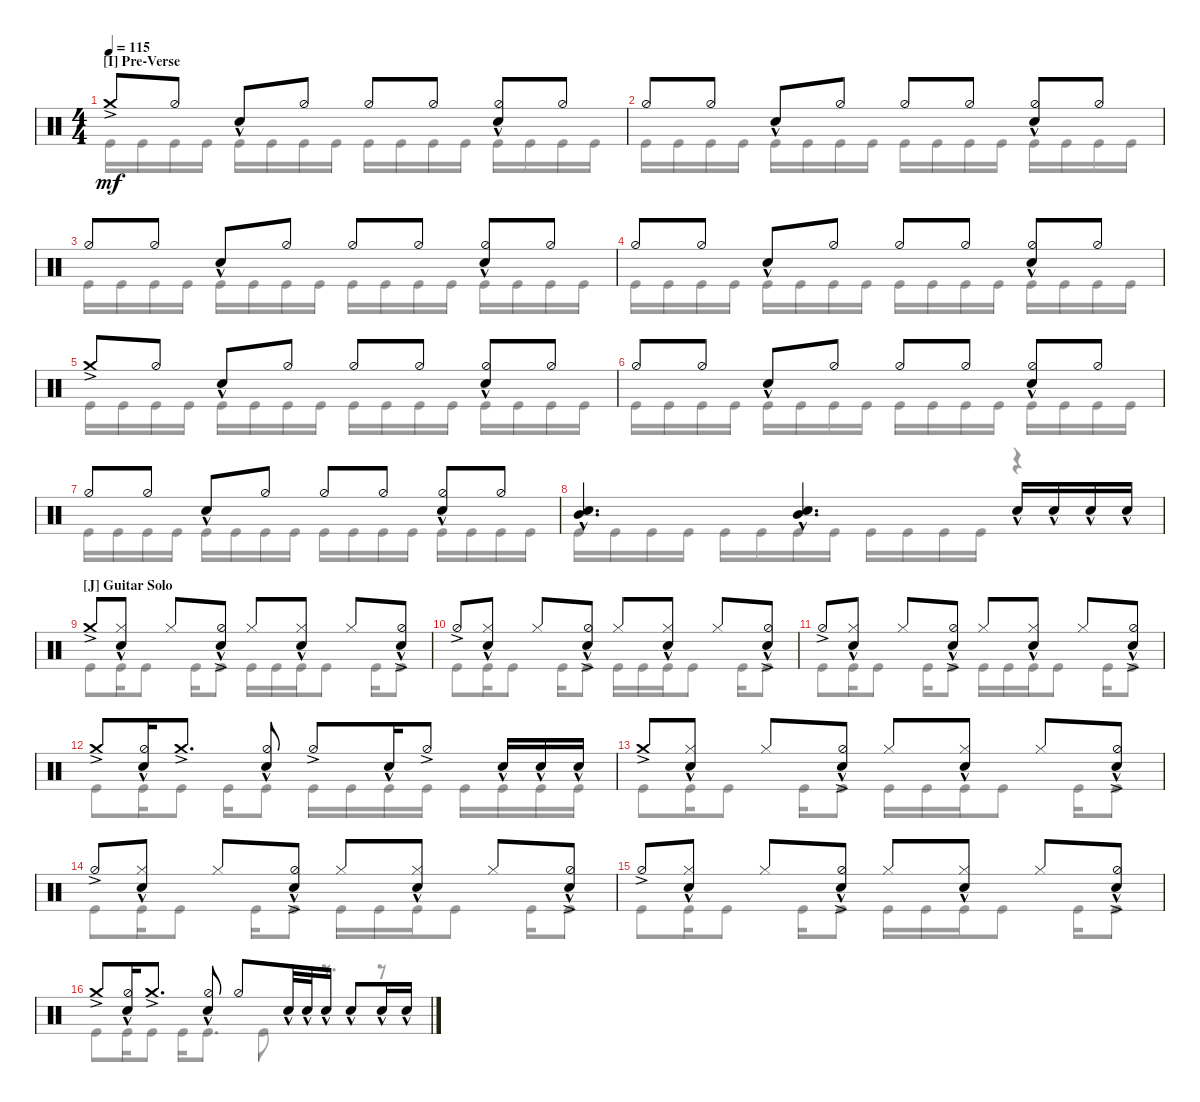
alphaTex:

\defaultSystemsLayout 4
\bracketExtendMode groupsimilarinstruments
\singleTrackTrackNamePolicy hidden
\multiTrackTrackNamePolicy hidden
\firstSystemTrackNameOrientation horizontal
\otherSystemsTrackNameOrientation horizontal
\track ("Maksim Udalov" "Drums") {instrument percussion}
\staff {score}
\articulation defaults
\voice
\ts (4 4)
\section ("I" "Pre-Verse")
\tempo 115
\clef neutral
\scale
1.02648
\ks c "Crash medium (hit)"{ac}.8{dy mf} "Hi-Hat (half)".8 "Snare (hit) 2"{hac}.8 "Hi-Hat (half)".8 "Hi-Hat (half)".8 "Hi-Hat (half)".8
("Hi-Hat (half)" "Snare (hit) 2"{hac}).8 "Hi-Hat (half)".8 |
\scale
0.973518 "Hi-Hat (half)".8 "Hi-Hat (half)".8 "Snare (hit) 2"{hac}.8 "Hi-Hat (half)".8 "Hi-Hat (half)".8 "Hi-Hat (half)".8 ("Hi-Hat (half)" "Snare (hit) 2"{hac}).8 "Hi-Hat (half)".8 |
\scale
1.02648 "Hi-Hat (half)".8 "Hi-Hat (half)".8 "Snare (hit) 2"{hac}.8 "Hi-Hat (half)".8 "Hi-Hat (half)".8 "Hi-Hat (half)".8 ("Hi-Hat (half)" "Snare (hit) 2"{hac}).8 "Hi-Hat (half)".8 |
\scale
0.973518 "Hi-Hat (half)".8 "Hi-Hat (half)".8 "Snare (hit) 2"{hac}.8 "Hi-Hat (half)".8 "Hi-Hat (half)".8 "Hi-Hat (half)".8 ("Hi-Hat (half)" "Snare (hit) 2"{hac}).8 "Hi-Hat (half)".8 |
\scale
1.02648 "Crash medium (hit)"{ac}.8 "Hi-Hat (half)".8 "Snare (hit) 2"{hac}.8 "Hi-Hat (half)".8 "Hi-Hat (half)".8 "Hi-Hat (half)".8 ("Hi-Hat (half)" "Snare (hit) 2"{hac}).8 "Hi-Hat (half)".8 |
\scale
0.973518 "Hi-Hat (half)".8 "Hi-Hat (half)".8 "Snare (hit) 2"{hac}.8 "Hi-Hat (half)".8 "Hi-Hat (half)".8 "Hi-Hat (half)".8 ("Hi-Hat (half)" "Snare (hit) 2"{hac}).8 "Hi-Hat (half)".8 |
\scale
1.02648 "Hi-Hat (half)".8 "Hi-Hat (half)".8 "Snare (hit) 2"{hac}.8 "Hi-Hat (half)".8 "Hi-Hat (half)".8 "Hi-Hat (half)".8 ("Hi-Hat (half)" "Snare (hit) 2"{hac}).8 "Hi-Hat (half)".8 |
\scale
0.973518 ("Snare (hit) 2"{hac} "Mid Tom (hit)").4{d} ("Snare (hit) 2"{hac} "Mid Tom (hit)").4{d} "Snare (hit) 2"{hac}.16 "Snare (hit) 2"{hac}.16 "Snare (hit) 2"{hac}.16 "Snare (hit) 2"{hac}.16 |
\section ("J" "Guitar Solo")
\scale
1.02648 "Crash medium (hit)"{ac}.8 ("Hi-Hat (closed)" "Snare (hit) 2"{hac}).8 "Hi-Hat (closed)".8 ("Snare (hit) 2"{hac} "Hi-Hat (half)"{ac}).8 "Hi-Hat (closed)".8 ("Hi-Hat (closed)" "Snare (hit) 2"{hac}).8 "Hi-Hat (closed)".8 ("Snare (hit) 2"{hac} "Hi-Hat (half)"{ac}).8 |
\scale
0.973518 "Hi-Hat (half)"{ac}.8 ("Hi-Hat (closed)" "Snare (hit) 2"{hac}).8 "Hi-Hat (closed)".8 ("Snare (hit) 2"{hac} "Hi-Hat (half)"{ac}).8 "Hi-Hat (closed)".8 ("Hi-Hat (closed)" "Snare (hit) 2"{hac}).8 "Hi-Hat (closed)".8 ("Snare (hit) 2"{hac} "Hi-Hat (half)"{ac}).8 |
\scale
1.02648 "Hi-Hat (half)"{ac}.8 ("Hi-Hat (closed)" "Snare (hit) 2"{hac}).8 "Hi-Hat (closed)".8 ("Snare (hit) 2"{hac} "Hi-Hat (half)"{ac}).8 "Hi-Hat (closed)".8 ("Hi-Hat (closed)" "Snare (hit) 2"{hac}).8 "Hi-Hat (closed)".8 ("Snare (hit) 2"{hac} "Hi-Hat (half)"{ac}).8 |
\scale
0.973518 "Crash medium (hit)"{ac}.8 ("Hi-Hat (half)" "Snare (hit) 2"{hac}).16 "Crash medium (hit)"{ac}.8{d} ("Hi-Hat (half)" "Snare (hit) 2"{hac}).8 "Hi-Hat (half)"{ac}.8 "Snare (hit) 2"{hac}.16 "Hi-Hat (half)"{ac}.8 "Snare (hit) 2"{hac}.16 "Snare (hit) 2"{hac}.16 "Snare (hit) 2"{hac}.16 |
\scale
1.02648 "Crash medium (hit)"{ac}.8 ("Hi-Hat (closed)" "Snare (hit) 2"{hac}).8 "Hi-Hat (closed)".8 ("Snare (hit) 2"{hac} "Hi-Hat (half)"{ac}).8 "Hi-Hat (closed)".8 ("Hi-Hat (closed)" "Snare (hit) 2"{hac}).8 "Hi-Hat (closed)".8 ("Snare (hit) 2"{hac} "Hi-Hat (half)"{ac}).8 |
\scale
0.973518 "Hi-Hat (half)"{ac}.8 ("Hi-Hat (closed)" "Snare (hit) 2"{hac}).8 "Hi-Hat (closed)".8 ("Snare (hit) 2"{hac} "Hi-Hat (half)"{ac}).8 "Hi-Hat (closed)".8 ("Hi-Hat (closed)" "Snare (hit) 2"{hac}).8 "Hi-Hat (closed)".8 ("Snare (hit) 2"{hac} "Hi-Hat (half)"{ac}).8 |
\scale
1.02648 "Hi-Hat (half)"{ac}.8 ("Hi-Hat (closed)" "Snare (hit) 2"{hac}).8 "Hi-Hat (closed)".8 ("Snare (hit) 2"{hac} "Hi-Hat (half)"{ac}).8 "Hi-Hat (closed)".8 ("Hi-Hat (closed)" "Snare (hit) 2"{hac}).8 "Hi-Hat (closed)".8 ("Snare (hit) 2"{hac} "Hi-Hat (half)"{ac}).8 |
\scale
0.973518 "Crash medium (hit)"{ac}.8 ("Hi-Hat (half)" "Snare (hit) 2"{hac}).16 "Crash medium (hit)"{ac}.8{d} ("Hi-Hat (half)" "Snare (hit) 2"{hac}).8 "Hi-Hat (half)".8 "Snare (hit) 2"{hac}.32 "Snare (hit) 2"{hac}.32 "Snare (hit) 2"{hac}.16 "Snare (hit) 2"{hac}.8 "Snare (hit) 2"{hac}.16 "Snare (hit) 2"{hac}.16
\voice
\clef neutral
\ottava regular
\simile none
\scale
1.02648
\ks c "Kick (hit)".16{dy mf} "Kick (hit)".16 "Kick (hit)".16 "Kick (hit)".16 "Kick (hit)".16 "Kick (hit)".16 "Kick (hit)".16 "Kick (hit)".16 "Kick (hit)".16 "Kick (hit)".16 "Kick (hit)".16 "Kick (hit)".16 "Kick (hit)".16 "Kick (hit)".16 "Kick (hit)".16 "Kick (hit)".16
|
\scale
0.973518 "Kick (hit)".16 "Kick (hit)".16 "Kick (hit)".16 "Kick (hit)".16 "Kick (hit)".16 "Kick (hit)".16 "Kick (hit)".16 "Kick (hit)".16 "Kick (hit)".16 "Kick (hit)".16 "Kick (hit)".16 "Kick (hit)".16 "Kick (hit)".16 "Kick (hit)".16 "Kick (hit)".16 "Kick (hit)".16 |
\scale
1.02648 "Kick (hit)".16 "Kick (hit)".16 "Kick (hit)".16 "Kick (hit)".16 "Kick (hit)".16 "Kick (hit)".16 "Kick (hit)".16 "Kick (hit)".16 "Kick (hit)".16 "Kick (hit)".16 "Kick (hit)".16 "Kick (hit)".16 "Kick (hit)".16 "Kick (hit)".16 "Kick (hit)".16 "Kick (hit)".16 |
\scale
0.973518 "Kick (hit)".16 "Kick (hit)".16 "Kick (hit)".16 "Kick (hit)".16 "Kick (hit)".16 "Kick (hit)".16 "Kick (hit)".16 "Kick (hit)".16 "Kick (hit)".16 "Kick (hit)".16 "Kick (hit)".16 "Kick (hit)".16 "Kick (hit)".16 "Kick (hit)".16 "Kick (hit)".16 "Kick (hit)".16 |
\scale
1.02648 "Kick (hit)".16 "Kick (hit)".16 "Kick (hit)".16 "Kick (hit)".16 "Kick (hit)".16 "Kick (hit)".16 "Kick (hit)".16 "Kick (hit)".16 "Kick (hit)".16 "Kick (hit)".16 "Kick (hit)".16 "Kick (hit)".16 "Kick (hit)".16 "Kick (hit)".16 "Kick (hit)".16 "Kick (hit)".16 |
\scale
0.973518 "Kick (hit)".16 "Kick (hit)".16 "Kick (hit)".16 "Kick (hit)".16 "Kick (hit)".16 "Kick (hit)".16 "Kick (hit)".16 "Kick (hit)".16 "Kick (hit)".16 "Kick (hit)".16 "Kick (hit)".16 "Kick (hit)".16 "Kick (hit)".16 "Kick (hit)".16 "Kick (hit)".16 "Kick (hit)".16 |
\scale
1.02648 "Kick (hit)".16 "Kick (hit)".16 "Kick (hit)".16 "Kick (hit)".16 "Kick (hit)".16 "Kick (hit)".16 "Kick (hit)".16 "Kick (hit)".16 "Kick (hit)".16 "Kick (hit)".16 "Kick (hit)".16 "Kick (hit)".16 "Kick (hit)".16 "Kick (hit)".16 "Kick (hit)".16 "Kick (hit)".16 |
\scale
0.973518 "Kick (hit)".16 "Kick (hit)".16 "Kick (hit)".16 "Kick (hit)".16 "Kick (hit)".16 "Kick (hit)".16 "Kick (hit)".16 "Kick (hit)".16 "Kick (hit)".16 "Kick (hit)".16 "Kick (hit)".16 "Kick (hit)".16 r.4 |
\scale
1.02648 "Kick (hit)".8 "Kick (hit)".16 "Kick (hit)".8 "Kick (hit)".16 "Kick (hit)".8 "Kick (hit)".16 "Kick (hit)".16 "Kick (hit)".16 "Kick (hit)".8 "Kick (hit)".16 "Kick (hit)".8 |
\scale
0.973518 "Kick (hit)".8 "Kick (hit)".16 "Kick (hit)".8 "Kick (hit)".16 "Kick (hit)".8 "Kick (hit)".16 "Kick (hit)".16 "Kick (hit)".16 "Kick (hit)".8 "Kick (hit)".16 "Kick (hit)".8 |
\scale
1.02648 "Kick (hit)".8 "Kick (hit)".16 "Kick (hit)".8 "Kick (hit)".16 "Kick (hit)".8 "Kick (hit)".16 "Kick (hit)".16 "Kick (hit)".16 "Kick (hit)".8 "Kick (hit)".16 "Kick (hit)".8 |
\scale
0.973518 "Kick (hit)".8 "Kick (hit)".16 "Kick (hit)".8 "Kick (hit)".16 "Kick (hit)".8 "Kick (hit)".16 "Kick (hit)".16 "Kick (hit)".16 "Kick (hit)".16 "Kick (hit)".16 "Kick (hit)".16 "Kick (hit)".16 "Kick (hit)".16 |
\scale
1.02648 "Kick (hit)".8 "Kick (hit)".16 "Kick (hit)".8 "Kick (hit)".16 "Kick (hit)".8 "Kick (hit)".16 "Kick (hit)".16 "Kick (hit)".16 "Kick (hit)".8 "Kick (hit)".16 "Kick (hit)".8 |
\scale
0.973518 "Kick (hit)".8 "Kick (hit)".16 "Kick (hit)".8 "Kick (hit)".16 "Kick (hit)".8 "Kick (hit)".16 "Kick (hit)".16 "Kick (hit)".16 "Kick (hit)".8 "Kick (hit)".16 "Kick (hit)".8 |
\scale
1.02648 "Kick (hit)".8 "Kick (hit)".16 "Kick (hit)".8 "Kick (hit)".16 "Kick (hit)".8 "Kick (hit)".16 "Kick (hit)".16 "Kick (hit)".16 "Kick (hit)".8 "Kick (hit)".16 "Kick (hit)".8 |
\scale
0.973518 "Kick (hit)".8 "Kick (hit)".16 "Kick (hit)".8 "Kick (hit)".16 "Kick (hit)".8{d} "Kick (hit)".8 r.8{d} r.8
